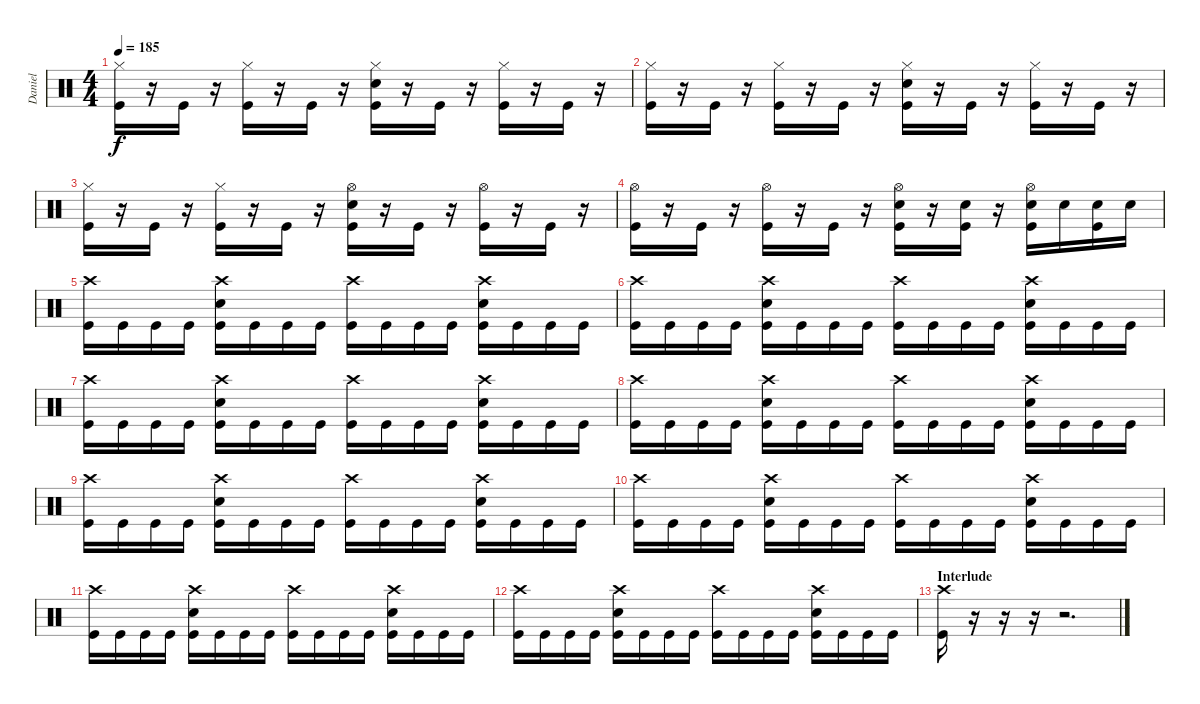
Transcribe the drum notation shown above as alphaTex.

\track ("Daniel" "Daniel") {instrument percussion}
\staff {score}
\articulation defaults
\ts (4 4)
\tempo 185
\clef neutral
\ks c
("Hi-Hat (closed)" "Kick (hit)").16{dy f} r.16 "Kick (hit)".16 r.16 ("Hi-Hat (closed)" "Kick (hit)").16 r.16 "Kick (hit)".16 r.16 ("Hi-Hat (closed)" "Snare (hit) 2" "Kick (hit)").16 r.16 "Kick (hit)".16 r.16 ("Hi-Hat (closed)" "Kick (hit)").16 r.16 "Kick (hit)".16 r.16 |
("Hi-Hat (closed)" "Kick (hit)").16 r.16 "Kick (hit)".16 r.16 ("Hi-Hat (closed)" "Kick (hit)").16 r.16 "Kick (hit)".16 r.16 ("Hi-Hat (closed)" "Snare (hit) 2" "Kick (hit)").16 r.16 "Kick (hit)".16 r.16 ("Hi-Hat (closed)" "Kick (hit)").16 r.16 "Kick (hit)".16 r.16 |
("Hi-Hat (closed)" "Kick (hit)").16 r.16 "Kick (hit)".16 r.16 ("Hi-Hat (closed)" "Kick (hit)").16 r.16 "Kick (hit)".16 r.16 ("Hi-Hat (open)" "Snare (hit) 2" "Kick (hit)").16 r.16 "Kick (hit)".16 r.16 ("Hi-Hat (open)" "Kick (hit)").16 r.16 "Kick (hit)".16 r.16 |
("Hi-Hat (open)" "Kick (hit)").16 r.16 "Kick (hit)".16 r.16 ("Hi-Hat (open)" "Kick (hit)").16 r.16 "Kick (hit)".16 r.16 ("Hi-Hat (open)" "Snare (hit) 2" "Kick (hit)").16 r.16 ("Snare (hit) 2" "Kick (hit)").16 r.16 ("Hi-Hat (open)" "Snare (hit) 2" "Kick (hit)").16 "Snare (hit) 2".16 ("Snare (hit) 2" "Kick (hit)").16 "Snare (hit) 2".16 |
("Crash high (hit)" "Kick (hit)").16 "Kick (hit)".16 "Kick (hit)".16 "Kick (hit)".16 ("Crash high (hit)" "Snare (hit) 2" "Kick (hit)").16 "Kick (hit)".16 "Kick (hit)".16 "Kick (hit)".16 ("Crash high (hit)" "Kick (hit)").16 "Kick (hit)".16 "Kick (hit)".16 "Kick (hit)".16 ("Crash high (hit)" "Snare (hit) 2" "Kick (hit)").16 "Kick (hit)".16 "Kick (hit)".16 "Kick (hit)".16 |
("Crash high (hit)" "Kick (hit)").16 "Kick (hit)".16 "Kick (hit)".16 "Kick (hit)".16 ("Crash high (hit)" "Snare (hit) 2" "Kick (hit)").16 "Kick (hit)".16 "Kick (hit)".16 "Kick (hit)".16 ("Crash high (hit)" "Kick (hit)").16 "Kick (hit)".16 "Kick (hit)".16 "Kick (hit)".16 ("Crash high (hit)" "Snare (hit) 2" "Kick (hit)").16 "Kick (hit)".16 "Kick (hit)".16 "Kick (hit)".16 |
("Crash high (hit)" "Kick (hit)").16 "Kick (hit)".16 "Kick (hit)".16 "Kick (hit)".16 ("Crash high (hit)" "Snare (hit) 2" "Kick (hit)").16 "Kick (hit)".16 "Kick (hit)".16 "Kick (hit)".16 ("Crash high (hit)" "Kick (hit)").16 "Kick (hit)".16 "Kick (hit)".16 "Kick (hit)".16 ("Crash high (hit)" "Snare (hit) 2" "Kick (hit)").16 "Kick (hit)".16 "Kick (hit)".16 "Kick (hit)".16 |
("Crash high (hit)" "Kick (hit)").16 "Kick (hit)".16 "Kick (hit)".16 "Kick (hit)".16 ("Crash high (hit)" "Snare (hit) 2" "Kick (hit)").16 "Kick (hit)".16 "Kick (hit)".16 "Kick (hit)".16 ("Crash high (hit)" "Kick (hit)").16 "Kick (hit)".16 "Kick (hit)".16 "Kick (hit)".16 ("Crash high (hit)" "Snare (hit) 2" "Kick (hit)").16 "Kick (hit)".16 "Kick (hit)".16 "Kick (hit)".16 |
("Crash high (hit)" "Kick (hit)").16 "Kick (hit)".16 "Kick (hit)".16 "Kick (hit)".16 ("Crash high (hit)" "Snare (hit) 2" "Kick (hit)").16 "Kick (hit)".16 "Kick (hit)".16 "Kick (hit)".16 ("Crash high (hit)" "Kick (hit)").16 "Kick (hit)".16 "Kick (hit)".16 "Kick (hit)".16 ("Crash high (hit)" "Snare (hit) 2" "Kick (hit)").16 "Kick (hit)".16 "Kick (hit)".16 "Kick (hit)".16 |
("Crash high (hit)" "Kick (hit)").16 "Kick (hit)".16 "Kick (hit)".16 "Kick (hit)".16 ("Crash high (hit)" "Snare (hit) 2" "Kick (hit)").16 "Kick (hit)".16 "Kick (hit)".16 "Kick (hit)".16 ("Crash high (hit)" "Kick (hit)").16 "Kick (hit)".16 "Kick (hit)".16 "Kick (hit)".16 ("Crash high (hit)" "Snare (hit) 2" "Kick (hit)").16 "Kick (hit)".16 "Kick (hit)".16 "Kick (hit)".16 |
("Crash high (hit)" "Kick (hit)").16 "Kick (hit)".16 "Kick (hit)".16 "Kick (hit)".16 ("Crash high (hit)" "Snare (hit) 2" "Kick (hit)").16 "Kick (hit)".16 "Kick (hit)".16 "Kick (hit)".16 ("Crash high (hit)" "Kick (hit)").16 "Kick (hit)".16 "Kick (hit)".16 "Kick (hit)".16 ("Crash high (hit)" "Snare (hit) 2" "Kick (hit)").16 "Kick (hit)".16 "Kick (hit)".16 "Kick (hit)".16 |
("Crash high (hit)" "Kick (hit)").16 "Kick (hit)".16 "Kick (hit)".16 "Kick (hit)".16 ("Crash high (hit)" "Snare (hit) 2" "Kick (hit)").16 "Kick (hit)".16 "Kick (hit)".16 "Kick (hit)".16 ("Crash high (hit)" "Kick (hit)").16 "Kick (hit)".16 "Kick (hit)".16 "Kick (hit)".16 ("Crash high (hit)" "Snare (hit) 2" "Kick (hit)").16 "Kick (hit)".16 "Kick (hit)".16 "Kick (hit)".16 |
\section ("" "Interlude")
("Crash high (hit)" "Kick (hit)").16 r.16 r.16 r.16 r.2{d}
